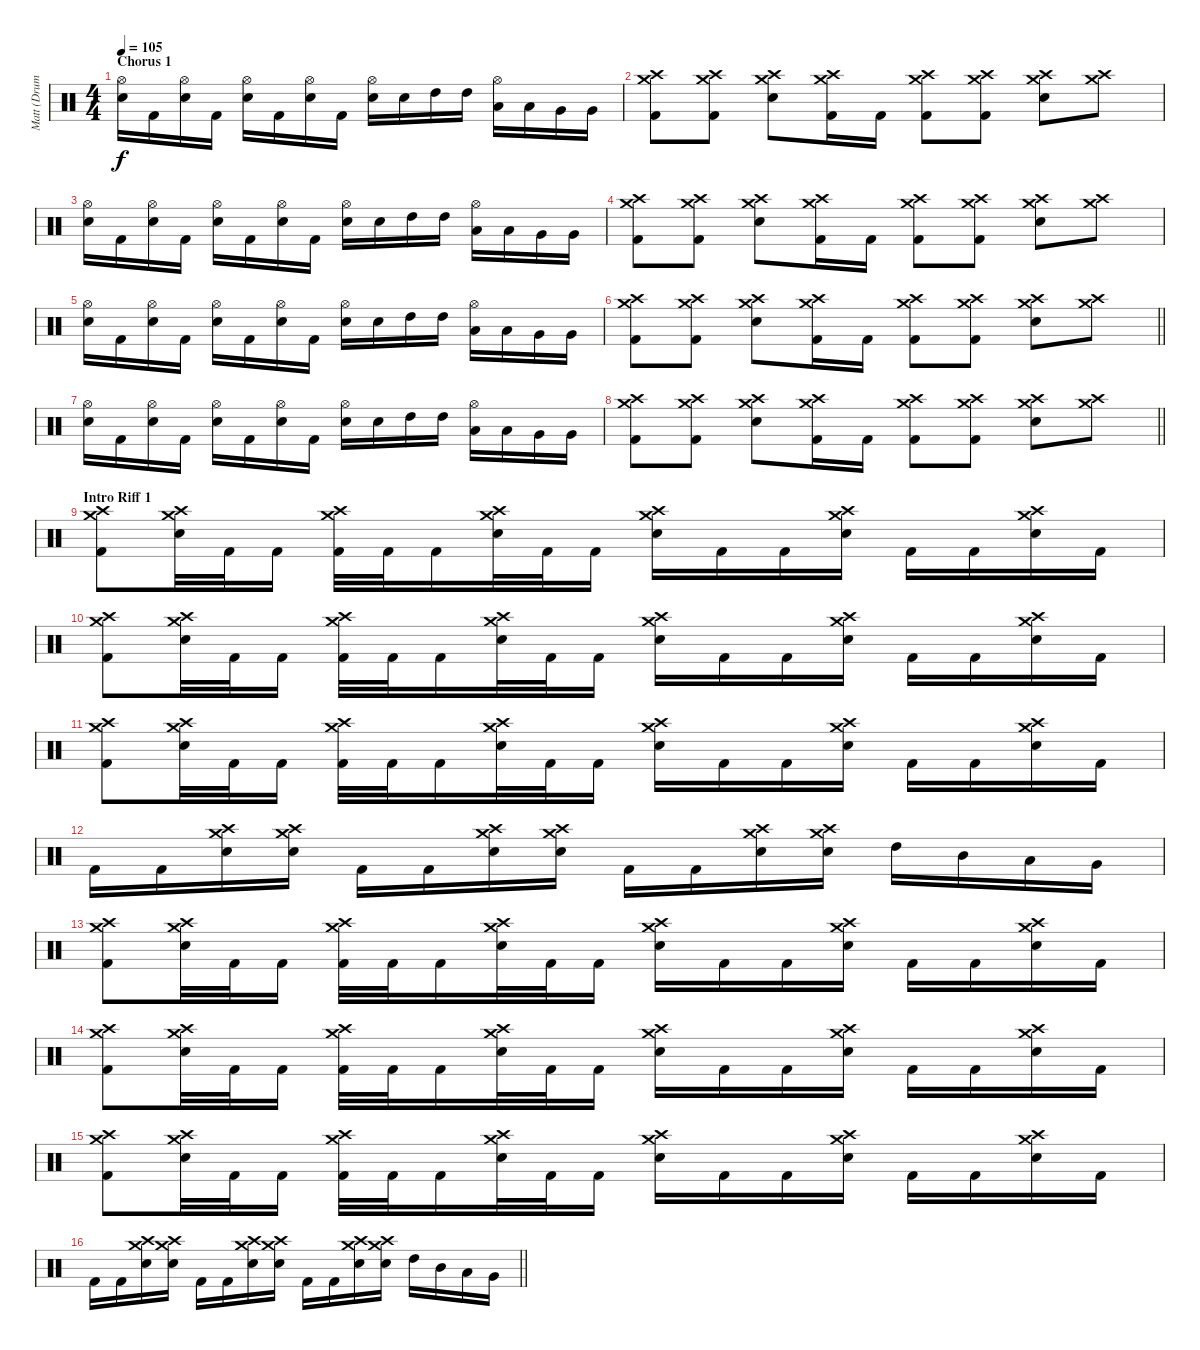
\track ("Matt (Drums)" "Matt (Drum") {instrument percussion}
\staff {score}
\articulation defaults
\ts (4 4)
\section ("" "Chorus 1")
\tempo 105
\clef neutral
\ks c
("Hi-Hat (open)" "Electric Snare (hit)").16{dy f} "Kick (hit) 2".16 ("Hi-Hat (open)" "Electric Snare (hit)").16 "Kick (hit) 2".16 ("Hi-Hat (open)" "Electric Snare (hit)").16 "Kick (hit) 2".16 ("Hi-Hat (open)" "Electric Snare (hit)").16 "Kick (hit) 2".16 ("Hi-Hat (open)" "Electric Snare (hit)").16 "Electric Snare (hit)".16 "High Tom (hit)".16 "High Tom (hit)".16 ("Hi-Hat (open)" "Low Tom (hit)").16 "Low Tom (hit)".16 "Very Low Tom (hit)".16 "Very Low Tom (hit)".16 |
("Crash high (hit)" "Crash medium (hit)" "Kick (hit) 2").8 ("Crash high (hit)" "Crash medium (hit)" "Kick (hit) 2").8 ("Crash high (hit)" "Crash medium (hit)" "Electric Snare (hit)").8 ("Crash high (hit)" "Crash medium (hit)" "Kick (hit) 2").16 "Kick (hit) 2".16 ("Crash high (hit)" "Crash medium (hit)" "Kick (hit) 2").8 ("Crash high (hit)" "Crash medium (hit)" "Kick (hit) 2").8 ("Crash high (hit)" "Crash medium (hit)" "Electric Snare (hit)").8 ("Crash high (hit)" "Crash medium (hit)").8 |
("Hi-Hat (open)" "Electric Snare (hit)").16 "Kick (hit) 2".16 ("Hi-Hat (open)" "Electric Snare (hit)").16 "Kick (hit) 2".16 ("Hi-Hat (open)" "Electric Snare (hit)").16 "Kick (hit) 2".16 ("Hi-Hat (open)" "Electric Snare (hit)").16 "Kick (hit) 2".16 ("Hi-Hat (open)" "Electric Snare (hit)").16 "Electric Snare (hit)".16 "High Tom (hit)".16 "High Tom (hit)".16 ("Hi-Hat (open)" "Low Tom (hit)").16 "Low Tom (hit)".16 "Very Low Tom (hit)".16 "Very Low Tom (hit)".16 |
("Crash high (hit)" "Crash medium (hit)" "Kick (hit) 2").8 ("Crash high (hit)" "Crash medium (hit)" "Kick (hit) 2").8 ("Crash high (hit)" "Crash medium (hit)" "Electric Snare (hit)").8 ("Crash high (hit)" "Crash medium (hit)" "Kick (hit) 2").16 "Kick (hit) 2".16 ("Crash high (hit)" "Crash medium (hit)" "Kick (hit) 2").8 ("Crash high (hit)" "Crash medium (hit)" "Kick (hit) 2").8 ("Crash high (hit)" "Crash medium (hit)" "Electric Snare (hit)").8 ("Crash high (hit)" "Crash medium (hit)").8 |
("Hi-Hat (open)" "Electric Snare (hit)").16 "Kick (hit) 2".16 ("Hi-Hat (open)" "Electric Snare (hit)").16 "Kick (hit) 2".16 ("Hi-Hat (open)" "Electric Snare (hit)").16 "Kick (hit) 2".16 ("Hi-Hat (open)" "Electric Snare (hit)").16 "Kick (hit) 2".16 ("Hi-Hat (open)" "Electric Snare (hit)").16 "Electric Snare (hit)".16 "High Tom (hit)".16 "High Tom (hit)".16 ("Hi-Hat (open)" "Low Tom (hit)").16 "Low Tom (hit)".16 "Very Low Tom (hit)".16 "Very Low Tom (hit)".16 |
\barLineRight lightlight
("Crash high (hit)" "Crash medium (hit)" "Kick (hit) 2").8 ("Crash high (hit)" "Crash medium (hit)" "Kick (hit) 2").8 ("Crash high (hit)" "Crash medium (hit)" "Electric Snare (hit)").8 ("Crash high (hit)" "Crash medium (hit)" "Kick (hit) 2").16 "Kick (hit) 2".16 ("Crash high (hit)" "Crash medium (hit)" "Kick (hit) 2").8 ("Crash high (hit)" "Crash medium (hit)" "Kick (hit) 2").8 ("Crash high (hit)" "Crash medium (hit)" "Electric Snare (hit)").8 ("Crash high (hit)" "Crash medium (hit)").8 |
("Hi-Hat (open)" "Electric Snare (hit)").16 "Kick (hit) 2".16 ("Hi-Hat (open)" "Electric Snare (hit)").16 "Kick (hit) 2".16 ("Hi-Hat (open)" "Electric Snare (hit)").16 "Kick (hit) 2".16 ("Hi-Hat (open)" "Electric Snare (hit)").16 "Kick (hit) 2".16 ("Hi-Hat (open)" "Electric Snare (hit)").16 "Electric Snare (hit)".16 "High Tom (hit)".16 "High Tom (hit)".16 ("Hi-Hat (open)" "Low Tom (hit)").16 "Low Tom (hit)".16 "Very Low Tom (hit)".16 "Very Low Tom (hit)".16 |
\barLineRight lightlight
("Crash high (hit)" "Crash medium (hit)" "Kick (hit) 2").8 ("Crash high (hit)" "Crash medium (hit)" "Kick (hit) 2").8 ("Crash high (hit)" "Crash medium (hit)" "Electric Snare (hit)").8 ("Crash high (hit)" "Crash medium (hit)" "Kick (hit) 2").16 "Kick (hit) 2".16 ("Crash high (hit)" "Crash medium (hit)" "Kick (hit) 2").8 ("Crash high (hit)" "Crash medium (hit)" "Kick (hit) 2").8 ("Crash high (hit)" "Crash medium (hit)" "Electric Snare (hit)").8 ("Crash high (hit)" "Crash medium (hit)").8 |
\section ("" "Intro Riff 1")
("Crash medium (hit)" "Crash high (hit)" "Kick (hit) 2").8 ("Crash medium (hit)" "Crash high (hit)" "Electric Snare (hit)").32 "Kick (hit) 2".32 "Kick (hit) 2".16 ("Crash medium (hit)" "Crash high (hit)" "Kick (hit) 2").32 "Kick (hit) 2".32 "Kick (hit) 2".16 ("Crash medium (hit)" "Crash high (hit)" "Electric Snare (hit)").32 "Kick (hit) 2".32 "Kick (hit) 2".16 ("Crash medium (hit)" "Crash high (hit)" "Electric Snare (hit)").16 "Kick (hit) 2".16 "Kick (hit) 2".16 ("Crash medium (hit)" "Crash high (hit)" "Electric Snare (hit)").16 "Kick (hit) 2".16 "Kick (hit) 2".16 ("Crash medium (hit)" "Crash high (hit)" "Electric Snare (hit)").16 "Kick (hit) 2".16 |
("Crash medium (hit)" "Crash high (hit)" "Kick (hit) 2").8 ("Crash medium (hit)" "Crash high (hit)" "Electric Snare (hit)").32 "Kick (hit) 2".32 "Kick (hit) 2".16 ("Crash medium (hit)" "Crash high (hit)" "Kick (hit) 2").32 "Kick (hit) 2".32 "Kick (hit) 2".16 ("Crash medium (hit)" "Crash high (hit)" "Electric Snare (hit)").32 "Kick (hit) 2".32 "Kick (hit) 2".16 ("Crash medium (hit)" "Crash high (hit)" "Electric Snare (hit)").16 "Kick (hit) 2".16 "Kick (hit) 2".16 ("Crash medium (hit)" "Crash high (hit)" "Electric Snare (hit)").16 "Kick (hit) 2".16 "Kick (hit) 2".16 ("Crash medium (hit)" "Crash high (hit)" "Electric Snare (hit)").16 "Kick (hit) 2".16 |
("Crash medium (hit)" "Crash high (hit)" "Kick (hit) 2").8 ("Crash medium (hit)" "Crash high (hit)" "Electric Snare (hit)").32 "Kick (hit) 2".32 "Kick (hit) 2".16 ("Crash medium (hit)" "Crash high (hit)" "Kick (hit) 2").32 "Kick (hit) 2".32 "Kick (hit) 2".16 ("Crash medium (hit)" "Crash high (hit)" "Electric Snare (hit)").32 "Kick (hit) 2".32 "Kick (hit) 2".16 ("Crash medium (hit)" "Crash high (hit)" "Electric Snare (hit)").16 "Kick (hit) 2".16 "Kick (hit) 2".16 ("Crash medium (hit)" "Crash high (hit)" "Electric Snare (hit)").16 "Kick (hit) 2".16 "Kick (hit) 2".16 ("Crash medium (hit)" "Crash high (hit)" "Electric Snare (hit)").16 "Kick (hit) 2".16 |
"Kick (hit) 2".16 "Kick (hit) 2".16 ("Crash medium (hit)" "Crash high (hit)" "Electric Snare (hit)").16 ("Crash medium (hit)" "Crash high (hit)" "Electric Snare (hit)").16 "Kick (hit) 2".16 "Kick (hit) 2".16 ("Crash medium (hit)" "Crash high (hit)" "Electric Snare (hit)").16 ("Crash medium (hit)" "Crash high (hit)" "Electric Snare (hit)").16 "Kick (hit) 2".16 "Kick (hit) 2".16 ("Crash medium (hit)" "Crash high (hit)" "Electric Snare (hit)").16 ("Crash medium (hit)" "Crash high (hit)" "Electric Snare (hit)").16 "High Tom (hit)".16 "Mid Tom (hit)".16 "Low Tom (hit)".16 "Very Low Tom (hit)".16 |
("Crash medium (hit)" "Crash high (hit)" "Kick (hit) 2").8 ("Crash medium (hit)" "Crash high (hit)" "Electric Snare (hit)").32 "Kick (hit) 2".32 "Kick (hit) 2".16 ("Crash medium (hit)" "Crash high (hit)" "Kick (hit) 2").32 "Kick (hit) 2".32 "Kick (hit) 2".16 ("Crash medium (hit)" "Crash high (hit)" "Electric Snare (hit)").32 "Kick (hit) 2".32 "Kick (hit) 2".16 ("Crash medium (hit)" "Crash high (hit)" "Electric Snare (hit)").16 "Kick (hit) 2".16 "Kick (hit) 2".16 ("Crash medium (hit)" "Crash high (hit)" "Electric Snare (hit)").16 "Kick (hit) 2".16 "Kick (hit) 2".16 ("Crash medium (hit)" "Crash high (hit)" "Electric Snare (hit)").16 "Kick (hit) 2".16 |
("Crash medium (hit)" "Crash high (hit)" "Kick (hit) 2").8 ("Crash medium (hit)" "Crash high (hit)" "Electric Snare (hit)").32 "Kick (hit) 2".32 "Kick (hit) 2".16 ("Crash medium (hit)" "Crash high (hit)" "Kick (hit) 2").32 "Kick (hit) 2".32 "Kick (hit) 2".16 ("Crash medium (hit)" "Crash high (hit)" "Electric Snare (hit)").32 "Kick (hit) 2".32 "Kick (hit) 2".16 ("Crash medium (hit)" "Crash high (hit)" "Electric Snare (hit)").16 "Kick (hit) 2".16 "Kick (hit) 2".16 ("Crash medium (hit)" "Crash high (hit)" "Electric Snare (hit)").16 "Kick (hit) 2".16 "Kick (hit) 2".16 ("Crash medium (hit)" "Crash high (hit)" "Electric Snare (hit)").16 "Kick (hit) 2".16 |
("Crash medium (hit)" "Crash high (hit)" "Kick (hit) 2").8 ("Crash medium (hit)" "Crash high (hit)" "Electric Snare (hit)").32 "Kick (hit) 2".32 "Kick (hit) 2".16 ("Crash medium (hit)" "Crash high (hit)" "Kick (hit) 2").32 "Kick (hit) 2".32 "Kick (hit) 2".16 ("Crash medium (hit)" "Crash high (hit)" "Electric Snare (hit)").32 "Kick (hit) 2".32 "Kick (hit) 2".16 ("Crash medium (hit)" "Crash high (hit)" "Electric Snare (hit)").16 "Kick (hit) 2".16 "Kick (hit) 2".16 ("Crash medium (hit)" "Crash high (hit)" "Electric Snare (hit)").16 "Kick (hit) 2".16 "Kick (hit) 2".16 ("Crash medium (hit)" "Crash high (hit)" "Electric Snare (hit)").16 "Kick (hit) 2".16 |
\barLineRight lightlight "Kick (hit) 2".16 "Kick (hit) 2".16
("Crash medium (hit)" "Crash high (hit)" "Electric Snare (hit)").16 ("Crash medium (hit)" "Crash high (hit)" "Electric Snare (hit)").16 "Kick (hit) 2".16 "Kick (hit) 2".16 ("Crash medium (hit)" "Crash high (hit)" "Electric Snare (hit)").16 ("Crash medium (hit)" "Crash high (hit)" "Electric Snare (hit)").16 "Kick (hit) 2".16 "Kick (hit) 2".16 ("Crash medium (hit)" "Crash high (hit)" "Electric Snare (hit)").16 ("Crash medium (hit)" "Crash high (hit)" "Electric Snare (hit)").16 "High Tom (hit)".16 "Mid Tom (hit)".16 "Low Tom (hit)".16 "Very Low Tom (hit)".16
